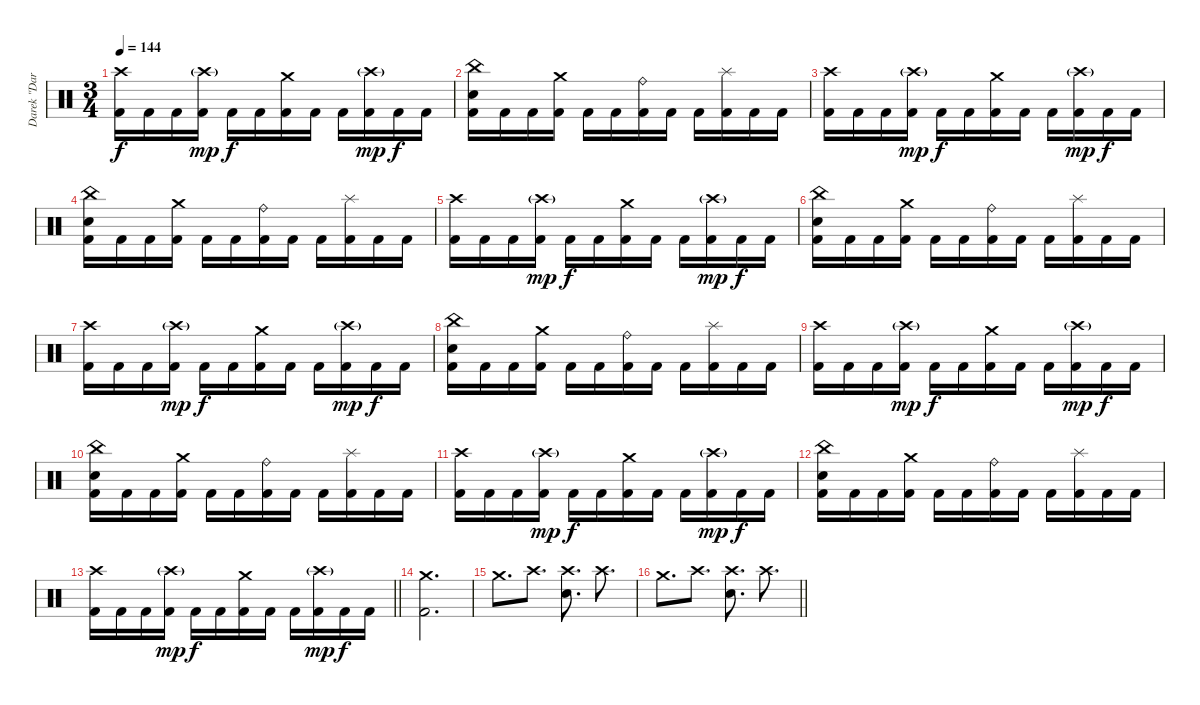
\track ("Darek \"Daray\" Brzozowski " "Darek \"Dar") {instrument percussion}
\staff {score}
\articulation defaults
\ts (3 4)
\tempo 144
\clef neutral
\ks c
("Crash high (hit)" "Kick (hit) 2").16{dy f} "Kick (hit) 2".16 "Kick (hit) 2".16 ("Crash high (hit)"{g} "Kick (hit) 2").16{dy mp} "Kick (hit) 2".16{dy f} "Kick (hit) 2".16 ("Crash medium (hit)" "Kick (hit) 2").16 "Kick (hit) 2".16 "Kick (hit) 2".16 ("Crash high (hit)"{g} "Kick (hit) 2").16{dy mp} "Kick (hit) 2".16{dy f} "Kick (hit) 2".16 |
("China (hit)" "Electric Snare (hit)" "Kick (hit) 2").16 "Kick (hit) 2".16 "Kick (hit) 2".16 ("Crash medium (hit)" "Kick (hit) 2").16 "Kick (hit) 2".16 "Kick (hit) 2".16 ("Ride (bell)" "Kick (hit) 2").16 "Kick (hit) 2".16 "Kick (hit) 2".16 ("Splash (hit)" "Kick (hit) 2").16 "Kick (hit) 2".16 "Kick (hit) 2".16 |
("Crash high (hit)" "Kick (hit) 2").16 "Kick (hit) 2".16 "Kick (hit) 2".16 ("Crash high (hit)"{g} "Kick (hit) 2").16{dy mp} "Kick (hit) 2".16{dy f} "Kick (hit) 2".16 ("Crash medium (hit)" "Kick (hit) 2").16 "Kick (hit) 2".16 "Kick (hit) 2".16 ("Crash high (hit)"{g} "Kick (hit) 2").16{dy mp} "Kick (hit) 2".16{dy f} "Kick (hit) 2".16 |
("China (hit)" "Electric Snare (hit)" "Kick (hit) 2").16 "Kick (hit) 2".16 "Kick (hit) 2".16 ("Crash medium (hit)" "Kick (hit) 2").16 "Kick (hit) 2".16 "Kick (hit) 2".16 ("Ride (bell)" "Kick (hit) 2").16 "Kick (hit) 2".16 "Kick (hit) 2".16 ("Splash (hit)" "Kick (hit) 2").16 "Kick (hit) 2".16 "Kick (hit) 2".16 |
("Crash high (hit)" "Kick (hit) 2").16 "Kick (hit) 2".16 "Kick (hit) 2".16 ("Crash high (hit)"{g} "Kick (hit) 2").16{dy mp} "Kick (hit) 2".16{dy f} "Kick (hit) 2".16 ("Crash medium (hit)" "Kick (hit) 2").16 "Kick (hit) 2".16 "Kick (hit) 2".16 ("Crash high (hit)"{g} "Kick (hit) 2").16{dy mp} "Kick (hit) 2".16{dy f} "Kick (hit) 2".16 |
("China (hit)" "Electric Snare (hit)" "Kick (hit) 2").16 "Kick (hit) 2".16 "Kick (hit) 2".16 ("Crash medium (hit)" "Kick (hit) 2").16 "Kick (hit) 2".16 "Kick (hit) 2".16 ("Ride (bell)" "Kick (hit) 2").16 "Kick (hit) 2".16 "Kick (hit) 2".16 ("Splash (hit)" "Kick (hit) 2").16 "Kick (hit) 2".16 "Kick (hit) 2".16 |
("Crash high (hit)" "Kick (hit) 2").16 "Kick (hit) 2".16 "Kick (hit) 2".16 ("Crash high (hit)"{g} "Kick (hit) 2").16{dy mp} "Kick (hit) 2".16{dy f} "Kick (hit) 2".16 ("Crash medium (hit)" "Kick (hit) 2").16 "Kick (hit) 2".16 "Kick (hit) 2".16 ("Crash high (hit)"{g} "Kick (hit) 2").16{dy mp} "Kick (hit) 2".16{dy f} "Kick (hit) 2".16 |
("China (hit)" "Electric Snare (hit)" "Kick (hit) 2").16 "Kick (hit) 2".16 "Kick (hit) 2".16 ("Crash medium (hit)" "Kick (hit) 2").16 "Kick (hit) 2".16 "Kick (hit) 2".16 ("Ride (bell)" "Kick (hit) 2").16 "Kick (hit) 2".16 "Kick (hit) 2".16 ("Splash (hit)" "Kick (hit) 2").16 "Kick (hit) 2".16 "Kick (hit) 2".16 |
("Crash high (hit)" "Kick (hit) 2").16 "Kick (hit) 2".16 "Kick (hit) 2".16 ("Crash high (hit)"{g} "Kick (hit) 2").16{dy mp} "Kick (hit) 2".16{dy f} "Kick (hit) 2".16 ("Crash medium (hit)" "Kick (hit) 2").16 "Kick (hit) 2".16 "Kick (hit) 2".16 ("Crash high (hit)"{g} "Kick (hit) 2").16{dy mp} "Kick (hit) 2".16{dy f} "Kick (hit) 2".16 |
("China (hit)" "Electric Snare (hit)" "Kick (hit) 2").16 "Kick (hit) 2".16 "Kick (hit) 2".16 ("Crash medium (hit)" "Kick (hit) 2").16 "Kick (hit) 2".16 "Kick (hit) 2".16 ("Ride (bell)" "Kick (hit) 2").16 "Kick (hit) 2".16 "Kick (hit) 2".16 ("Splash (hit)" "Kick (hit) 2").16 "Kick (hit) 2".16 "Kick (hit) 2".16 |
("Crash high (hit)" "Kick (hit) 2").16 "Kick (hit) 2".16 "Kick (hit) 2".16 ("Crash high (hit)"{g} "Kick (hit) 2").16{dy mp} "Kick (hit) 2".16{dy f} "Kick (hit) 2".16 ("Crash medium (hit)" "Kick (hit) 2").16 "Kick (hit) 2".16 "Kick (hit) 2".16 ("Crash high (hit)"{g} "Kick (hit) 2").16{dy mp} "Kick (hit) 2".16{dy f} "Kick (hit) 2".16 |
("China (hit)" "Electric Snare (hit)" "Kick (hit) 2").16 "Kick (hit) 2".16 "Kick (hit) 2".16 ("Crash medium (hit)" "Kick (hit) 2").16 "Kick (hit) 2".16 "Kick (hit) 2".16 ("Ride (bell)" "Kick (hit) 2").16 "Kick (hit) 2".16 "Kick (hit) 2".16 ("Splash (hit)" "Kick (hit) 2").16 "Kick (hit) 2".16 "Kick (hit) 2".16 |
\barLineRight lightlight
("Crash high (hit)" "Kick (hit) 2").16 "Kick (hit) 2".16 "Kick (hit) 2".16 ("Crash high (hit)"{g} "Kick (hit) 2").16{dy mp} "Kick (hit) 2".16{dy f} "Kick (hit) 2".16 ("Crash medium (hit)" "Kick (hit) 2").16 "Kick (hit) 2".16 "Kick (hit) 2".16 ("Crash high (hit)"{g} "Kick (hit) 2").16{dy mp} "Kick (hit) 2".16{dy f} "Kick (hit) 2".16 |
("Crash medium (hit)" "Kick (hit) 2").2{d} |
"Crash medium (hit)".8{d} "Crash high (hit)".8{d} ("Crash high (hit)" "Electric Snare (hit)").8{d} "Crash high (hit)".8{d} |
\barLineRight lightlight "Crash medium (hit)".8{d} "Crash high (hit)".8{d}
("Crash high (hit)" "Electric Snare (hit)").8{d} "Crash high (hit)".8{d}
